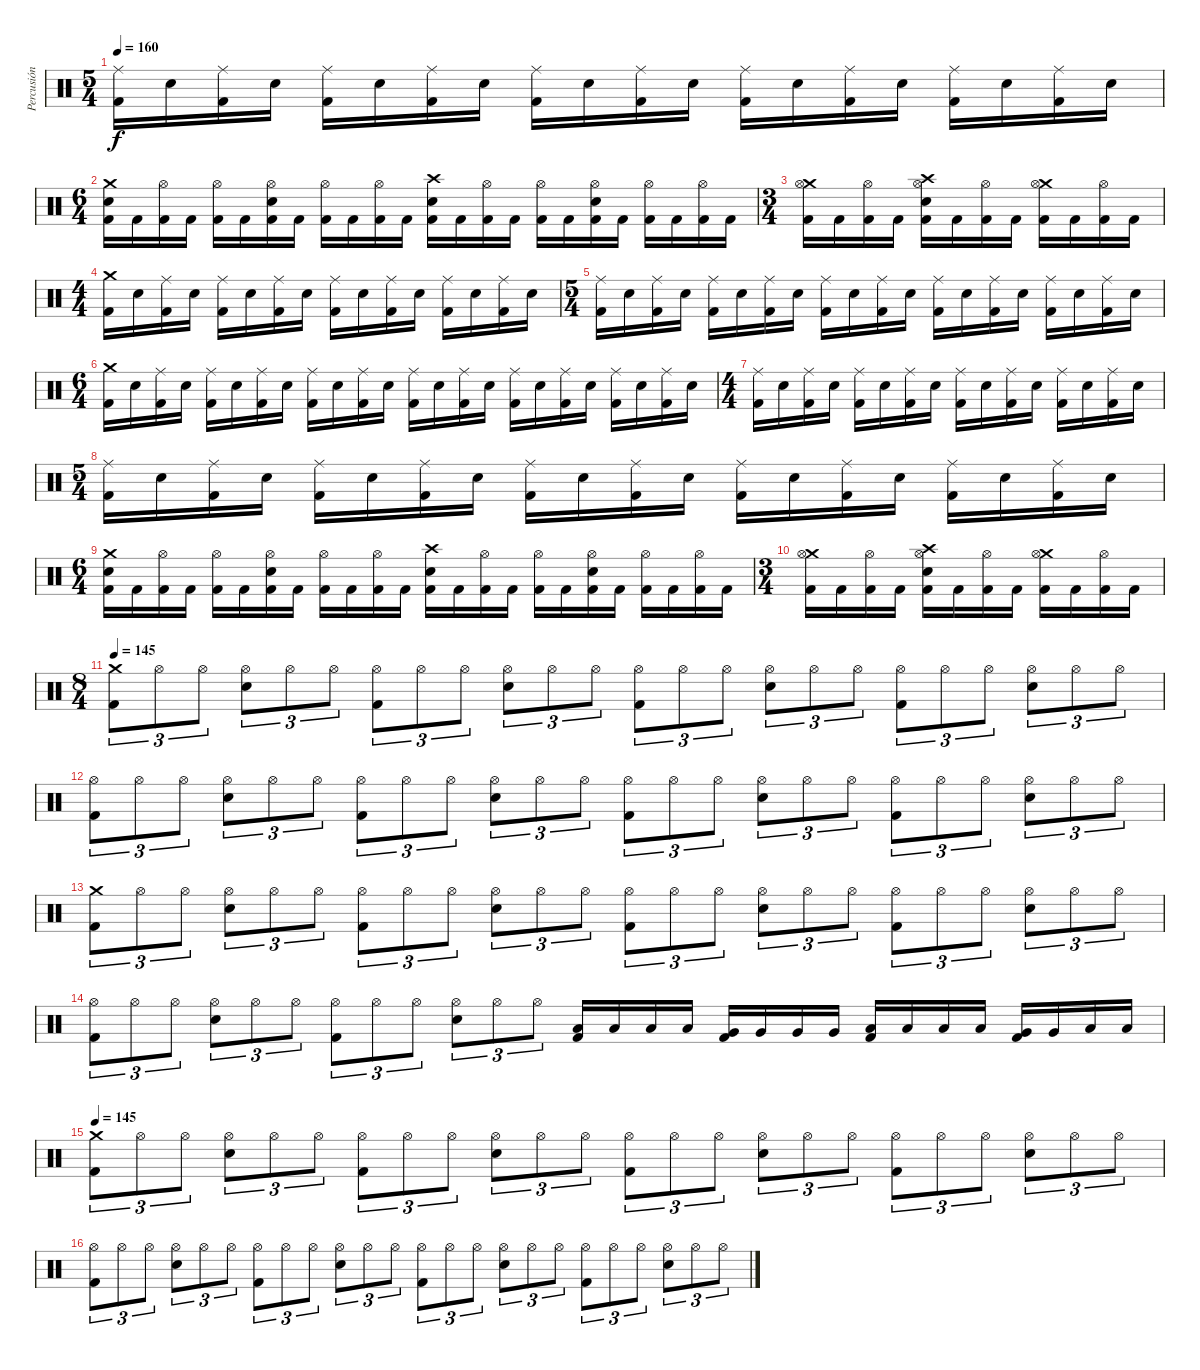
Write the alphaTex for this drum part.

\track ("Percusión" "Percusión") {instrument percussion}
\staff {score}
\articulation defaults
\ts (5 4)
\tempo 160
\clef neutral
\ks c
("Ride (middle)" "Kick (hit) 2").16{dy f} "Electric Snare (hit)".16 ("Ride (middle)" "Kick (hit) 2").16 "Electric Snare (hit)".16 ("Ride (middle)" "Kick (hit) 2").16 "Electric Snare (hit)".16 ("Ride (middle)" "Kick (hit) 2").16 "Electric Snare (hit)".16 ("Ride (middle)" "Kick (hit) 2").16 "Electric Snare (hit)".16 ("Ride (middle)" "Kick (hit) 2").16 "Electric Snare (hit)".16 ("Ride (middle)" "Kick (hit) 2").16 "Electric Snare (hit)".16 ("Ride (middle)" "Kick (hit) 2").16 "Electric Snare (hit)".16 ("Ride (middle)" "Kick (hit) 2").16 "Electric Snare (hit)".16 ("Ride (middle)" "Kick (hit) 2").16 "Electric Snare (hit)".16 |
\ts (6 4)
("Crash medium (hit)" "Electric Snare (hit)" "Kick (hit) 2").16 "Kick (hit) 2".16 ("Hi-Hat (open)" "Kick (hit) 2").16 "Kick (hit) 2".16 ("Hi-Hat (open)" "Kick (hit) 2").16 "Kick (hit) 2".16 ("Hi-Hat (open)" "Electric Snare (hit)" "Kick (hit) 2").16 "Kick (hit) 2".16 ("Hi-Hat (open)" "Kick (hit) 2").16 "Kick (hit) 2".16 ("Hi-Hat (open)" "Kick (hit) 2").16 "Kick (hit) 2".16 ("Crash high (hit)" "Electric Snare (hit)" "Kick (hit) 2").16 "Kick (hit) 2".16 ("Hi-Hat (open)" "Kick (hit) 2").16 "Kick (hit) 2".16 ("Hi-Hat (open)" "Kick (hit) 2").16 "Kick (hit) 2".16 ("Hi-Hat (open)" "Electric Snare (hit)" "Kick (hit) 2").16 "Kick (hit) 2".16 ("Hi-Hat (open)" "Kick (hit) 2").16 "Kick (hit) 2".16 ("Hi-Hat (open)" "Kick (hit) 2").16 "Kick (hit) 2".16 |
\ts (3 4)
("Crash medium (hit)" "Hi-Hat (open)" "Kick (hit) 2").16 "Kick (hit) 2".16 ("Hi-Hat (open)" "Kick (hit) 2").16 "Kick (hit) 2".16 ("Crash high (hit)" "Hi-Hat (open)" "Electric Snare (hit)" "Kick (hit) 2").16 "Kick (hit) 2".16 ("Hi-Hat (open)" "Kick (hit) 2").16 "Kick (hit) 2".16 ("Crash medium (hit)" "Hi-Hat (open)" "Kick (hit) 2").16 "Kick (hit) 2".16 ("Hi-Hat (open)" "Kick (hit) 2").16 "Kick (hit) 2".16 |
\ts (4 4)
("Crash medium (hit)" "Kick (hit) 2").16 "Electric Snare (hit)".16 ("Ride (middle)" "Kick (hit) 2").16 "Electric Snare (hit)".16 ("Ride (middle)" "Kick (hit) 2").16 "Electric Snare (hit)".16 ("Ride (middle)" "Kick (hit) 2").16 "Electric Snare (hit)".16 ("Ride (middle)" "Kick (hit) 2").16 "Electric Snare (hit)".16 ("Ride (middle)" "Kick (hit) 2").16 "Electric Snare (hit)".16 ("Ride (middle)" "Kick (hit) 2").16 "Electric Snare (hit)".16 ("Ride (middle)" "Kick (hit) 2").16 "Electric Snare (hit)".16 |
\ts (5 4)
("Ride (middle)" "Kick (hit) 2").16 "Electric Snare (hit)".16 ("Ride (middle)" "Kick (hit) 2").16 "Electric Snare (hit)".16 ("Ride (middle)" "Kick (hit) 2").16 "Electric Snare (hit)".16 ("Ride (middle)" "Kick (hit) 2").16 "Electric Snare (hit)".16 ("Ride (middle)" "Kick (hit) 2").16 "Electric Snare (hit)".16 ("Ride (middle)" "Kick (hit) 2").16 "Electric Snare (hit)".16 ("Ride (middle)" "Kick (hit) 2").16 "Electric Snare (hit)".16 ("Ride (middle)" "Kick (hit) 2").16 "Electric Snare (hit)".16 ("Ride (middle)" "Kick (hit) 2").16 "Electric Snare (hit)".16 ("Ride (middle)" "Kick (hit) 2").16 "Electric Snare (hit)".16 |
\ts (6 4)
("Crash medium (hit)" "Kick (hit) 2").16 "Electric Snare (hit)".16 ("Ride (middle)" "Kick (hit) 2").16 "Electric Snare (hit)".16 ("Ride (middle)" "Kick (hit) 2").16 "Electric Snare (hit)".16 ("Ride (middle)" "Kick (hit) 2").16 "Electric Snare (hit)".16 ("Ride (middle)" "Kick (hit) 2").16 "Electric Snare (hit)".16 ("Ride (middle)" "Kick (hit) 2").16 "Electric Snare (hit)".16 ("Ride (middle)" "Kick (hit) 2").16 "Electric Snare (hit)".16 ("Ride (middle)" "Kick (hit) 2").16 "Electric Snare (hit)".16 ("Ride (middle)" "Kick (hit) 2").16 "Electric Snare (hit)".16 ("Ride (middle)" "Kick (hit) 2").16 "Electric Snare (hit)".16 ("Ride (middle)" "Kick (hit) 2").16 "Electric Snare (hit)".16 ("Ride (middle)" "Kick (hit) 2").16 "Electric Snare (hit)".16 |
\ts (4 4)
("Ride (middle)" "Kick (hit) 2").16 "Electric Snare (hit)".16 ("Ride (middle)" "Kick (hit) 2").16 "Electric Snare (hit)".16 ("Ride (middle)" "Kick (hit) 2").16 "Electric Snare (hit)".16 ("Ride (middle)" "Kick (hit) 2").16 "Electric Snare (hit)".16 ("Ride (middle)" "Kick (hit) 2").16 "Electric Snare (hit)".16 ("Ride (middle)" "Kick (hit) 2").16 "Electric Snare (hit)".16 ("Ride (middle)" "Kick (hit) 2").16 "Electric Snare (hit)".16 ("Ride (middle)" "Kick (hit) 2").16 "Electric Snare (hit)".16 |
\ts (5 4)
("Ride (middle)" "Kick (hit) 2").16 "Electric Snare (hit)".16 ("Ride (middle)" "Kick (hit) 2").16 "Electric Snare (hit)".16 ("Ride (middle)" "Kick (hit) 2").16 "Electric Snare (hit)".16 ("Ride (middle)" "Kick (hit) 2").16 "Electric Snare (hit)".16 ("Ride (middle)" "Kick (hit) 2").16 "Electric Snare (hit)".16 ("Ride (middle)" "Kick (hit) 2").16 "Electric Snare (hit)".16 ("Ride (middle)" "Kick (hit) 2").16 "Electric Snare (hit)".16 ("Ride (middle)" "Kick (hit) 2").16 "Electric Snare (hit)".16 ("Ride (middle)" "Kick (hit) 2").16 "Electric Snare (hit)".16 ("Ride (middle)" "Kick (hit) 2").16 "Electric Snare (hit)".16 |
\ts (6 4)
("Crash medium (hit)" "Electric Snare (hit)" "Kick (hit) 2").16 "Kick (hit) 2".16 ("Hi-Hat (open)" "Kick (hit) 2").16 "Kick (hit) 2".16 ("Hi-Hat (open)" "Kick (hit) 2").16 "Kick (hit) 2".16 ("Hi-Hat (open)" "Electric Snare (hit)" "Kick (hit) 2").16 "Kick (hit) 2".16 ("Hi-Hat (open)" "Kick (hit) 2").16 "Kick (hit) 2".16 ("Hi-Hat (open)" "Kick (hit) 2").16 "Kick (hit) 2".16 ("Crash high (hit)" "Electric Snare (hit)" "Kick (hit) 2").16 "Kick (hit) 2".16 ("Hi-Hat (open)" "Kick (hit) 2").16 "Kick (hit) 2".16 ("Hi-Hat (open)" "Kick (hit) 2").16 "Kick (hit) 2".16 ("Hi-Hat (open)" "Electric Snare (hit)" "Kick (hit) 2").16 "Kick (hit) 2".16 ("Hi-Hat (open)" "Kick (hit) 2").16 "Kick (hit) 2".16 ("Hi-Hat (open)" "Kick (hit) 2").16 "Kick (hit) 2".16 |
\ts (3 4)
("Crash medium (hit)" "Hi-Hat (open)" "Kick (hit) 2").16 "Kick (hit) 2".16 ("Hi-Hat (open)" "Kick (hit) 2").16 "Kick (hit) 2".16 ("Crash high (hit)" "Hi-Hat (open)" "Electric Snare (hit)" "Kick (hit) 2").16 "Kick (hit) 2".16 ("Hi-Hat (open)" "Kick (hit) 2").16 "Kick (hit) 2".16 ("Crash medium (hit)" "Hi-Hat (open)" "Kick (hit) 2").16 "Kick (hit) 2".16 ("Hi-Hat (open)" "Kick (hit) 2").16 "Kick (hit) 2".16 |
\ts (8 4)
\tempo 145
("Crash medium (hit)" "Kick (hit) 2").8{tu (3 2)} "Hi-Hat (open)".8{tu (3 2)} "Hi-Hat (open)".8{tu (3 2)} ("Hi-Hat (open)" "Electric Snare (hit)").8{tu (3 2)} "Hi-Hat (open)".8{tu (3 2)} "Hi-Hat (open)".8{tu (3 2)} ("Hi-Hat (open)" "Kick (hit) 2").8{tu (3 2)} "Hi-Hat (open)".8{tu (3 2)} "Hi-Hat (open)".8{tu (3 2)} ("Hi-Hat (open)" "Electric Snare (hit)").8{tu (3 2)} "Hi-Hat (open)".8{tu (3 2)} "Hi-Hat (open)".8{tu (3 2)} ("Hi-Hat (open)" "Kick (hit) 2").8{tu (3 2)} "Hi-Hat (open)".8{tu (3 2)} "Hi-Hat (open)".8{tu (3 2)} ("Hi-Hat (open)" "Electric Snare (hit)").8{tu (3 2)} "Hi-Hat (open)".8{tu (3 2)} "Hi-Hat (open)".8{tu (3 2)} ("Hi-Hat (open)" "Kick (hit) 2").8{tu (3 2)} "Hi-Hat (open)".8{tu (3 2)} "Hi-Hat (open)".8{tu (3 2)} ("Hi-Hat (open)" "Electric Snare (hit)").8{tu (3 2)} "Hi-Hat (open)".8{tu (3 2)} "Hi-Hat (open)".8{tu (3 2)} |
("Hi-Hat (open)" "Kick (hit) 2").8{tu (3 2)} "Hi-Hat (open)".8{tu (3 2)} "Hi-Hat (open)".8{tu (3 2)} ("Hi-Hat (open)" "Electric Snare (hit)").8{tu (3 2)} "Hi-Hat (open)".8{tu (3 2)} "Hi-Hat (open)".8{tu (3 2)} ("Hi-Hat (open)" "Kick (hit) 2").8{tu (3 2)} "Hi-Hat (open)".8{tu (3 2)} "Hi-Hat (open)".8{tu (3 2)} ("Hi-Hat (open)" "Electric Snare (hit)").8{tu (3 2)} "Hi-Hat (open)".8{tu (3 2)} "Hi-Hat (open)".8{tu (3 2)} ("Hi-Hat (open)" "Kick (hit) 2").8{tu (3 2)} "Hi-Hat (open)".8{tu (3 2)} "Hi-Hat (open)".8{tu (3 2)} ("Hi-Hat (open)" "Electric Snare (hit)").8{tu (3 2)} "Hi-Hat (open)".8{tu (3 2)} "Hi-Hat (open)".8{tu (3 2)} ("Hi-Hat (open)" "Kick (hit) 2").8{tu (3 2)} "Hi-Hat (open)".8{tu (3 2)} "Hi-Hat (open)".8{tu (3 2)} ("Hi-Hat (open)" "Electric Snare (hit)").8{tu (3 2)} "Hi-Hat (open)".8{tu (3 2)} "Hi-Hat (open)".8{tu (3 2)} |
("Crash medium (hit)" "Kick (hit) 2").8{tu (3 2)} "Hi-Hat (open)".8{tu (3 2)} "Hi-Hat (open)".8{tu (3 2)} ("Hi-Hat (open)" "Electric Snare (hit)").8{tu (3 2)} "Hi-Hat (open)".8{tu (3 2)} "Hi-Hat (open)".8{tu (3 2)} ("Hi-Hat (open)" "Kick (hit) 2").8{tu (3 2)} "Hi-Hat (open)".8{tu (3 2)} "Hi-Hat (open)".8{tu (3 2)} ("Hi-Hat (open)" "Electric Snare (hit)").8{tu (3 2)} "Hi-Hat (open)".8{tu (3 2)} "Hi-Hat (open)".8{tu (3 2)} ("Hi-Hat (open)" "Kick (hit) 2").8{tu (3 2)} "Hi-Hat (open)".8{tu (3 2)} "Hi-Hat (open)".8{tu (3 2)} ("Hi-Hat (open)" "Electric Snare (hit)").8{tu (3 2)} "Hi-Hat (open)".8{tu (3 2)} "Hi-Hat (open)".8{tu (3 2)} ("Hi-Hat (open)" "Kick (hit) 2").8{tu (3 2)} "Hi-Hat (open)".8{tu (3 2)} "Hi-Hat (open)".8{tu (3 2)} ("Hi-Hat (open)" "Electric Snare (hit)").8{tu (3 2)} "Hi-Hat (open)".8{tu (3 2)} "Hi-Hat (open)".8{tu (3 2)} |
("Hi-Hat (open)" "Kick (hit) 2").8{tu (3 2)} "Hi-Hat (open)".8{tu (3 2)} "Hi-Hat (open)".8{tu (3 2)} ("Hi-Hat (open)" "Electric Snare (hit)").8{tu (3 2)} "Hi-Hat (open)".8{tu (3 2)} "Hi-Hat (open)".8{tu (3 2)} ("Hi-Hat (open)" "Kick (hit) 2").8{tu (3 2)} "Hi-Hat (open)".8{tu (3 2)} "Hi-Hat (open)".8{tu (3 2)} ("Hi-Hat (open)" "Electric Snare (hit)").8{tu (3 2)} "Hi-Hat (open)".8{tu (3 2)} "Hi-Hat (open)".8{tu (3 2)} ("Low Tom (hit)" "Kick (hit) 2").16 "Low Tom (hit)".16 "Low Tom (hit)".16 "Low Tom (hit)".16 ("Very Low Tom (hit)" "Kick (hit) 2").16 "Very Low Tom (hit)".16 "Very Low Tom (hit)".16 "Very Low Tom (hit)".16 ("Low Floor Tom (hit)" "Kick (hit) 2").16 "Low Floor Tom (hit)".16 "Low Floor Tom (hit)".16 "Low Floor Tom (hit)".16 ("Very Low Tom (hit)" "Kick (hit) 2").16 "Very Low Tom (hit)".16 "Low Floor Tom (hit)".16 "Low Floor Tom (hit)".16 |
\tempo 145
("Crash medium (hit)" "Kick (hit) 2").8{tu (3 2)} "Hi-Hat (open)".8{tu (3 2)} "Hi-Hat (open)".8{tu (3 2)} ("Hi-Hat (open)" "Electric Snare (hit)").8{tu (3 2)} "Hi-Hat (open)".8{tu (3 2)} "Hi-Hat (open)".8{tu (3 2)} ("Hi-Hat (open)" "Kick (hit) 2").8{tu (3 2)} "Hi-Hat (open)".8{tu (3 2)} "Hi-Hat (open)".8{tu (3 2)} ("Hi-Hat (open)" "Electric Snare (hit)").8{tu (3 2)} "Hi-Hat (open)".8{tu (3 2)} "Hi-Hat (open)".8{tu (3 2)} ("Hi-Hat (open)" "Kick (hit) 2").8{tu (3 2)} "Hi-Hat (open)".8{tu (3 2)} "Hi-Hat (open)".8{tu (3 2)} ("Hi-Hat (open)" "Electric Snare (hit)").8{tu (3 2)} "Hi-Hat (open)".8{tu (3 2)} "Hi-Hat (open)".8{tu (3 2)} ("Hi-Hat (open)" "Kick (hit) 2").8{tu (3 2)} "Hi-Hat (open)".8{tu (3 2)} "Hi-Hat (open)".8{tu (3 2)} ("Hi-Hat (open)" "Electric Snare (hit)").8{tu (3 2)} "Hi-Hat (open)".8{tu (3 2)} "Hi-Hat (open)".8{tu (3 2)} |
("Hi-Hat (open)" "Kick (hit) 2").8{tu (3 2)} "Hi-Hat (open)".8{tu (3 2)} "Hi-Hat (open)".8{tu (3 2)} ("Hi-Hat (open)" "Electric Snare (hit)").8{tu (3 2)} "Hi-Hat (open)".8{tu (3 2)} "Hi-Hat (open)".8{tu (3 2)} ("Hi-Hat (open)" "Kick (hit) 2").8{tu (3 2)} "Hi-Hat (open)".8{tu (3 2)} "Hi-Hat (open)".8{tu (3 2)} ("Hi-Hat (open)" "Electric Snare (hit)").8{tu (3 2)} "Hi-Hat (open)".8{tu (3 2)} "Hi-Hat (open)".8{tu (3 2)} ("Hi-Hat (open)" "Kick (hit) 2").8{tu (3 2)} "Hi-Hat (open)".8{tu (3 2)} "Hi-Hat (open)".8{tu (3 2)} ("Hi-Hat (open)" "Electric Snare (hit)").8{tu (3 2)} "Hi-Hat (open)".8{tu (3 2)} "Hi-Hat (open)".8{tu (3 2)} ("Hi-Hat (open)" "Kick (hit) 2").8{tu (3 2)} "Hi-Hat (open)".8{tu (3 2)} "Hi-Hat (open)".8{tu (3 2)} ("Hi-Hat (open)" "Electric Snare (hit)").8{tu (3 2)} "Hi-Hat (open)".8{tu (3 2)} "Hi-Hat (open)".8{tu (3 2)}
